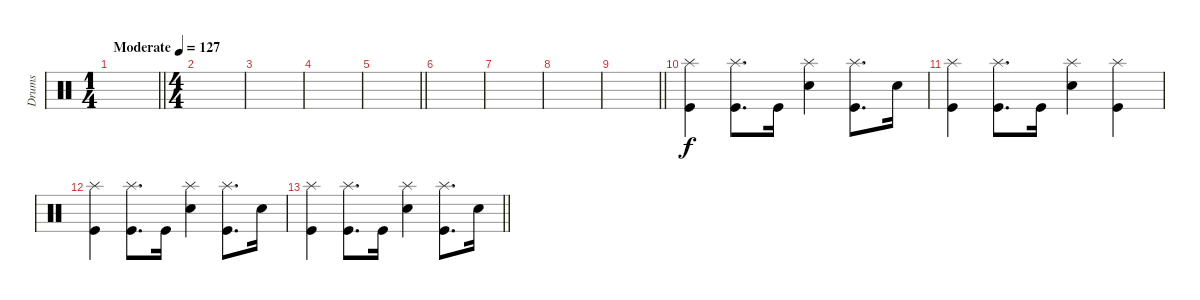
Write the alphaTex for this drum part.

\track ("Drums" "Drums") {instrument percussion}
\staff
\articulation defaults
\ts (1 4)
\tempo (127 "Moderate")
\clef neutral
\barLineRight lightlight
\ks c
|
\ts (4 4)
|
|
|
\barLineRight lightlight
|
|
|
|
\barLineRight lightlight
|
("Splash (hit)" "Kick (hit)").4 ("Splash (hit)" "Kick (hit)").8{d} "Kick (hit)".16 ("Splash (hit)" "Electric Snare (hit)").4 ("Splash (hit)" "Kick (hit)").8{d} "Electric Snare (hit)".16 |
("Splash (hit)" "Kick (hit)").4 ("Splash (hit)" "Kick (hit)").8{d} "Kick (hit)".16 ("Splash (hit)" "Electric Snare (hit)").4 ("Splash (hit)" "Kick (hit)").4 |
("Splash (hit)" "Kick (hit)").4 ("Splash (hit)" "Kick (hit)").8{d} "Kick (hit)".16 ("Splash (hit)" "Electric Snare (hit)").4 ("Splash (hit)" "Kick (hit)").8{d} "Electric Snare (hit)".16 |
\barLineRight lightlight
("Splash (hit)" "Kick (hit)").4 ("Splash (hit)" "Kick (hit)").8{d} "Kick (hit)".16 ("Splash (hit)" "Electric Snare (hit)").4 ("Splash (hit)" "Kick (hit)").8{d} "Electric Snare (hit)".16
